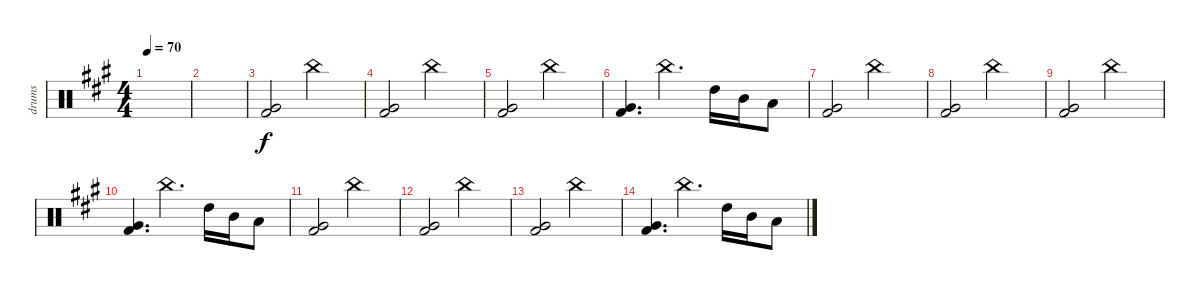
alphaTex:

\track ("drums" "drums") {instrument percussion}
\staff {score}
\articulation defaults
\ts (4 4)
\tempo 70
\clef neutral
\ks f#minor
|
|
("Very Low Tom (hit)" "Kick (hit) 2").2 "China (hit)".2 |
("Very Low Tom (hit)" "Kick (hit) 2").2 "China (hit)".2 |
("Very Low Tom (hit)" "Kick (hit) 2").2 "China (hit)".2 |
("Very Low Tom (hit)" "Kick (hit) 2").4{d} "China (hit)".4{d} "High Tom (hit)".16 "Mid Tom (hit)".16 "Low Tom (hit)".8 |
("Very Low Tom (hit)" "Kick (hit) 2").2 "China (hit)".2 |
("Very Low Tom (hit)" "Kick (hit) 2").2 "China (hit)".2 |
("Very Low Tom (hit)" "Kick (hit) 2").2 "China (hit)".2 |
("Very Low Tom (hit)" "Kick (hit) 2").4{d} "China (hit)".4{d} "High Tom (hit)".16 "Mid Tom (hit)".16 "Low Tom (hit)".8 |
("Very Low Tom (hit)" "Kick (hit) 2").2 "China (hit)".2 |
("Very Low Tom (hit)" "Kick (hit) 2").2 "China (hit)".2 |
("Very Low Tom (hit)" "Kick (hit) 2").2 "China (hit)".2 |
("Very Low Tom (hit)" "Kick (hit) 2").4{d} "China (hit)".4{d} "High Tom (hit)".16 "Mid Tom (hit)".16 "Low Tom (hit)".8
